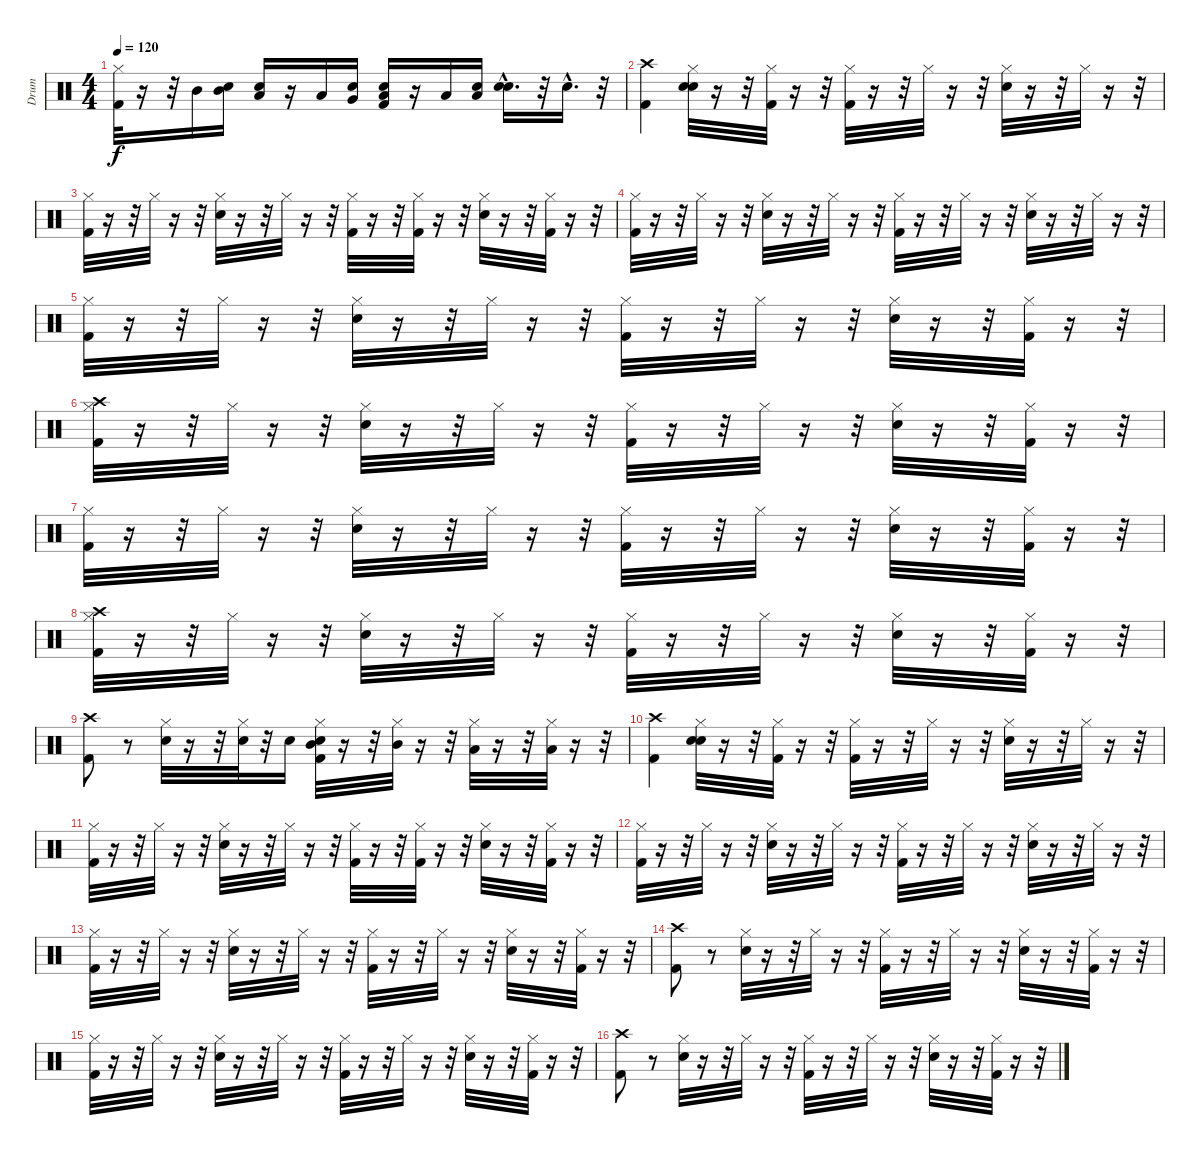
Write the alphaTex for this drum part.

\track ("Drum" "Drum") {instrument percussion}
\staff {score}
\articulation defaults
\ts (4 4)
\tempo 120
\clef neutral
\ks c
("Kick (hit) 2" "Hi-Hat (closed)").32{dy f} r.16 r.32 "Mid Tom (hit)".16 ("Snare (hit)" "Mid Tom (hit)").16 ("Snare (hit)" "Low Tom (hit)").16 r.16 "Low Tom (hit)".16 ("Snare (hit)" "Very Low Tom (hit)").16 ("Snare (hit)" "Kick (hit) 2" "Low Floor Tom (hit)").16 r.16 "Low Floor Tom (hit)".16 ("Snare (hit)" "Low Floor Tom (hit)").16 ("Snare (hit)"{hac} "Snare (hit) 2"{hac}).16{d} r.32 "Snare (hit) 2"{hac}.16{d} r.32 |
("Kick (hit) 2" "Crash high (hit)").4 ("Snare (hit)" "Snare (hit) 2" "Hi-Hat (closed)").32 r.16 r.32 ("Kick (hit) 2" "Hi-Hat (closed)").32 r.16 r.32 ("Kick (hit) 2" "Hi-Hat (closed)").32 r.16 r.32 "Hi-Hat (closed)".32 r.16 r.32 ("Snare (hit) 2" "Hi-Hat (closed)").32 r.16 r.32 "Hi-Hat (closed)".32 r.16 r.32 |
("Kick (hit) 2" "Hi-Hat (closed)").32 r.16 r.32 "Hi-Hat (closed)".32 r.16 r.32 ("Snare (hit) 2" "Hi-Hat (closed)").32 r.16 r.32 "Hi-Hat (closed)".32 r.16 r.32 ("Kick (hit) 2" "Hi-Hat (closed)").32 r.16 r.32 ("Kick (hit) 2" "Hi-Hat (closed)").32 r.16 r.32 ("Snare (hit) 2" "Hi-Hat (closed)").32 r.16 r.32 ("Kick (hit) 2" "Hi-Hat (closed)").32 r.16 r.32 |
("Kick (hit) 2" "Hi-Hat (closed)").32 r.16 r.32 "Hi-Hat (closed)".32 r.16 r.32 ("Snare (hit) 2" "Hi-Hat (closed)").32 r.16 r.32 "Hi-Hat (closed)".32 r.16 r.32 ("Kick (hit) 2" "Hi-Hat (closed)").32 r.16 r.32 "Hi-Hat (closed)".32 r.16 r.32 ("Snare (hit) 2" "Hi-Hat (closed)").32 r.16 r.32 "Hi-Hat (closed)".32 r.16 r.32 |
("Kick (hit) 2" "Hi-Hat (closed)").32 r.16 r.32 "Hi-Hat (closed)".32 r.16 r.32 ("Snare (hit) 2" "Hi-Hat (closed)").32 r.16 r.32 "Hi-Hat (closed)".32 r.16 r.32 ("Kick (hit) 2" "Hi-Hat (closed)").32 r.16 r.32 "Hi-Hat (closed)".32 r.16 r.32 ("Snare (hit) 2" "Hi-Hat (closed)").32 r.16 r.32 ("Kick (hit) 2" "Hi-Hat (closed)").32 r.16 r.32 |
("Kick (hit) 2" "Hi-Hat (closed)" "Crash high (hit)").32 r.16 r.32 "Hi-Hat (closed)".32 r.16 r.32 ("Snare (hit) 2" "Hi-Hat (closed)").32 r.16 r.32 "Hi-Hat (closed)".32 r.16 r.32 ("Kick (hit) 2" "Hi-Hat (closed)").32 r.16 r.32 "Hi-Hat (closed)".32 r.16 r.32 ("Snare (hit) 2" "Hi-Hat (closed)").32 r.16 r.32 ("Kick (hit) 2" "Hi-Hat (closed)").32 r.16 r.32 |
("Kick (hit) 2" "Hi-Hat (closed)").32 r.16 r.32 "Hi-Hat (closed)".32 r.16 r.32 ("Snare (hit) 2" "Hi-Hat (closed)").32 r.16 r.32 "Hi-Hat (closed)".32 r.16 r.32 ("Kick (hit) 2" "Hi-Hat (closed)").32 r.16 r.32 "Hi-Hat (closed)".32 r.16 r.32 ("Snare (hit) 2" "Hi-Hat (closed)").32 r.16 r.32 ("Kick (hit) 2" "Hi-Hat (closed)").32 r.16 r.32 |
("Kick (hit) 2" "Hi-Hat (closed)" "Crash high (hit)").32 r.16 r.32 "Hi-Hat (closed)".32 r.16 r.32 ("Snare (hit) 2" "Hi-Hat (closed)").32 r.16 r.32 "Hi-Hat (closed)".32 r.16 r.32 ("Kick (hit) 2" "Hi-Hat (closed)").32 r.16 r.32 "Hi-Hat (closed)".32 r.16 r.32 ("Snare (hit) 2" "Hi-Hat (closed)").32 r.16 r.32 ("Kick (hit) 2" "Hi-Hat (closed)").32 r.16 r.32 |
("Kick (hit) 2" "Crash high (hit)").8 r.8 ("Snare (hit) 2" "Hi-Hat (closed)").32 r.16 r.32 ("Snare (hit) 2" "Hi-Hat (closed)").32 r.32 "Snare (hit) 2".16 ("Snare (hit)" "Kick (hit) 2" "Hi-Hat (closed)" "Mid Tom (hit)").32 r.16 r.32 ("Hi-Hat (closed)" "Mid Tom (hit)").32 r.16 r.32 ("Hi-Hat (closed)" "Low Tom (hit)").32 r.16 r.32 ("Hi-Hat (closed)" "Low Tom (hit)").32 r.16 r.32 |
("Kick (hit) 2" "Crash high (hit)").4 ("Snare (hit)" "Snare (hit) 2" "Hi-Hat (closed)").32 r.16 r.32 ("Kick (hit) 2" "Hi-Hat (closed)").32 r.16 r.32 ("Kick (hit) 2" "Hi-Hat (closed)").32 r.16 r.32 "Hi-Hat (closed)".32 r.16 r.32 ("Snare (hit) 2" "Hi-Hat (closed)").32 r.16 r.32 "Hi-Hat (closed)".32 r.16 r.32 |
("Kick (hit) 2" "Hi-Hat (closed)").32 r.16 r.32 "Hi-Hat (closed)".32 r.16 r.32 ("Snare (hit) 2" "Hi-Hat (closed)").32 r.16 r.32 "Hi-Hat (closed)".32 r.16 r.32 ("Kick (hit) 2" "Hi-Hat (closed)").32 r.16 r.32 ("Kick (hit) 2" "Hi-Hat (closed)").32 r.16 r.32 ("Snare (hit) 2" "Hi-Hat (closed)").32 r.16 r.32 ("Kick (hit) 2" "Hi-Hat (closed)").32 r.16 r.32 |
("Kick (hit) 2" "Hi-Hat (closed)").32 r.16 r.32 "Hi-Hat (closed)".32 r.16 r.32 ("Snare (hit) 2" "Hi-Hat (closed)").32 r.16 r.32 "Hi-Hat (closed)".32 r.16 r.32 ("Kick (hit) 2" "Hi-Hat (closed)").32 r.16 r.32 "Hi-Hat (closed)".32 r.16 r.32 ("Snare (hit) 2" "Hi-Hat (closed)").32 r.16 r.32 "Hi-Hat (closed)".32 r.16 r.32 |
("Kick (hit) 2" "Hi-Hat (closed)").32 r.16 r.32 "Hi-Hat (closed)".32 r.16 r.32 ("Snare (hit) 2" "Hi-Hat (closed)").32 r.16 r.32 "Hi-Hat (closed)".32 r.16 r.32 ("Kick (hit) 2" "Hi-Hat (closed)").32 r.16 r.32 "Hi-Hat (closed)".32 r.16 r.32 ("Snare (hit) 2" "Hi-Hat (closed)").32 r.16 r.32 ("Kick (hit) 2" "Hi-Hat (closed)").32 r.16 r.32 |
("Kick (hit) 2" "Crash high (hit)").8 r.8 ("Snare (hit) 2" "Hi-Hat (closed)").32 r.16 r.32 "Hi-Hat (closed)".32 r.16 r.32 ("Kick (hit) 2" "Hi-Hat (closed)").32 r.16 r.32 "Hi-Hat (closed)".32 r.16 r.32 ("Snare (hit) 2" "Hi-Hat (closed)").32 r.16 r.32 ("Kick (hit) 2" "Hi-Hat (closed)").32 r.16 r.32 |
("Kick (hit) 2" "Hi-Hat (closed)").32 r.16 r.32 "Hi-Hat (closed)".32 r.16 r.32 ("Snare (hit) 2" "Hi-Hat (closed)").32 r.16 r.32 "Hi-Hat (closed)".32 r.16 r.32 ("Kick (hit) 2" "Hi-Hat (closed)").32 r.16 r.32 "Hi-Hat (closed)".32 r.16 r.32 ("Snare (hit) 2" "Hi-Hat (closed)").32 r.16 r.32 ("Kick (hit) 2" "Hi-Hat (closed)").32 r.16 r.32 |
("Kick (hit) 2" "Crash high (hit)").8 r.8 ("Snare (hit) 2" "Hi-Hat (closed)").32 r.16 r.32 "Hi-Hat (closed)".32 r.16 r.32 ("Kick (hit) 2" "Hi-Hat (closed)").32 r.16 r.32 "Hi-Hat (closed)".32 r.16 r.32 ("Snare (hit) 2" "Hi-Hat (closed)").32 r.16 r.32 ("Kick (hit) 2" "Hi-Hat (closed)").32 r.16 r.32
